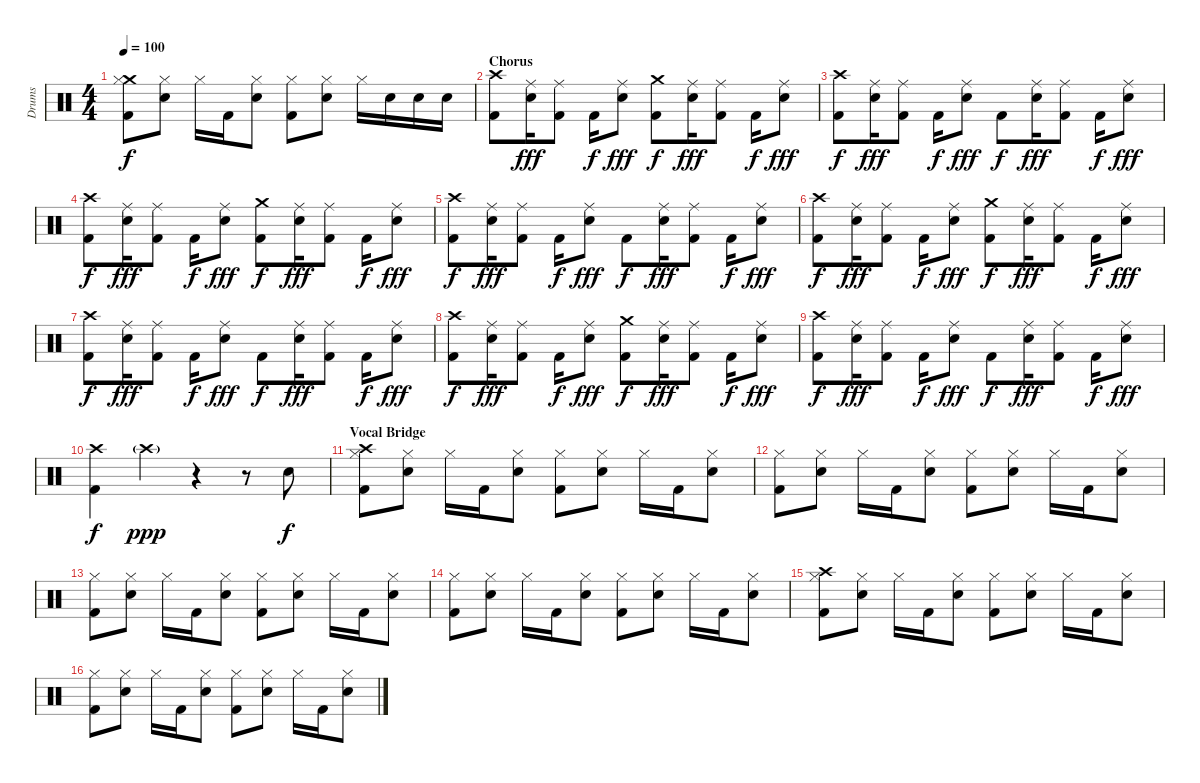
\track ("Drums" "Drums") {instrument percussion}
\staff {score}
\articulation defaults
\ts (4 4)
\tempo 100
\clef neutral
\ks c
("Crash medium (hit)" "Hi-Hat (closed)" "Kick (hit) 2").8{dy f} ("Hi-Hat (closed)" "Snare (hit) 2").8 "Hi-Hat (closed)".16 "Kick (hit) 2".16 ("Hi-Hat (closed)" "Snare (hit) 2").8 ("Hi-Hat (closed)" "Kick (hit) 2").8 ("Hi-Hat (closed)" "Snare (hit) 2").8 "Hi-Hat (closed)".16 "Snare (hit) 2".16 "Snare (hit) 2".16 "Snare (hit) 2".16 |
\section ("" "Chorus")
("Crash high (hit)" "Kick (hit) 2").8 ("Ride (middle)" "Snare (hit) 2").16{dy fff} ("Ride (middle)" "Kick (hit) 2").8 "Kick (hit) 2".16{dy f} ("Ride (middle)" "Snare (hit) 2").8{dy fff} ("Crash medium (hit)" "Kick (hit) 2").8{dy f} ("Ride (middle)" "Snare (hit) 2").16{dy fff} ("Ride (middle)" "Kick (hit) 2").8 "Kick (hit) 2".16{dy f} ("Ride (middle)" "Snare (hit) 2").8{dy fff} |
("Crash high (hit)" "Kick (hit) 2").8{dy f} ("Ride (middle)" "Snare (hit) 2").16{dy fff} ("Ride (middle)" "Kick (hit) 2").8 "Kick (hit) 2".16{dy f} ("Ride (middle)" "Snare (hit) 2").8{dy fff} "Kick (hit) 2".8{dy f} ("Ride (middle)" "Snare (hit) 2").16{dy fff} ("Ride (middle)" "Kick (hit) 2").8 "Kick (hit) 2".16{dy f} ("Ride (middle)" "Snare (hit) 2").8{dy fff} |
("Crash high (hit)" "Kick (hit) 2").8{dy f} ("Ride (middle)" "Snare (hit) 2").16{dy fff} ("Ride (middle)" "Kick (hit) 2").8 "Kick (hit) 2".16{dy f} ("Ride (middle)" "Snare (hit) 2").8{dy fff} ("Crash medium (hit)" "Kick (hit) 2").8{dy f} ("Ride (middle)" "Snare (hit) 2").16{dy fff} ("Ride (middle)" "Kick (hit) 2").8 "Kick (hit) 2".16{dy f} ("Ride (middle)" "Snare (hit) 2").8{dy fff} |
("Crash high (hit)" "Kick (hit) 2").8{dy f} ("Ride (middle)" "Snare (hit) 2").16{dy fff} ("Ride (middle)" "Kick (hit) 2").8 "Kick (hit) 2".16{dy f} ("Ride (middle)" "Snare (hit) 2").8{dy fff} "Kick (hit) 2".8{dy f} ("Ride (middle)" "Snare (hit) 2").16{dy fff} ("Ride (middle)" "Kick (hit) 2").8 "Kick (hit) 2".16{dy f} ("Ride (middle)" "Snare (hit) 2").8{dy fff} |
("Crash high (hit)" "Kick (hit) 2").8{dy f} ("Ride (middle)" "Snare (hit) 2").16{dy fff} ("Ride (middle)" "Kick (hit) 2").8 "Kick (hit) 2".16{dy f} ("Ride (middle)" "Snare (hit) 2").8{dy fff} ("Crash medium (hit)" "Kick (hit) 2").8{dy f} ("Ride (middle)" "Snare (hit) 2").16{dy fff} ("Ride (middle)" "Kick (hit) 2").8 "Kick (hit) 2".16{dy f} ("Ride (middle)" "Snare (hit) 2").8{dy fff} |
("Crash high (hit)" "Kick (hit) 2").8{dy f} ("Ride (middle)" "Snare (hit) 2").16{dy fff} ("Ride (middle)" "Kick (hit) 2").8 "Kick (hit) 2".16{dy f} ("Ride (middle)" "Snare (hit) 2").8{dy fff} "Kick (hit) 2".8{dy f} ("Ride (middle)" "Snare (hit) 2").16{dy fff} ("Ride (middle)" "Kick (hit) 2").8 "Kick (hit) 2".16{dy f} ("Ride (middle)" "Snare (hit) 2").8{dy fff} |
("Crash high (hit)" "Kick (hit) 2").8{dy f} ("Ride (middle)" "Snare (hit) 2").16{dy fff} ("Ride (middle)" "Kick (hit) 2").8 "Kick (hit) 2".16{dy f} ("Ride (middle)" "Snare (hit) 2").8{dy fff} ("Crash medium (hit)" "Kick (hit) 2").8{dy f} ("Ride (middle)" "Snare (hit) 2").16{dy fff} ("Ride (middle)" "Kick (hit) 2").8 "Kick (hit) 2".16{dy f} ("Ride (middle)" "Snare (hit) 2").8{dy fff} |
("Crash high (hit)" "Kick (hit) 2").8{dy f} ("Ride (middle)" "Snare (hit) 2").16{dy fff} ("Ride (middle)" "Kick (hit) 2").8 "Kick (hit) 2".16{dy f} ("Ride (middle)" "Snare (hit) 2").8{dy fff} "Kick (hit) 2".8{dy f} ("Ride (middle)" "Snare (hit) 2").16{dy fff} ("Ride (middle)" "Kick (hit) 2").8 "Kick (hit) 2".16{dy f} ("Ride (middle)" "Snare (hit) 2").8{dy fff} |
("Crash high (hit)" "Kick (hit) 2").4{dy f} "Crash high (hit)"{g}.4{dy ppp} r.4 r.8 "Snare (hit) 2".8{dy f} |
\section ("" "Vocal Bridge")
("Crash high (hit)" "Hi-Hat (closed)" "Kick (hit) 2").8 ("Hi-Hat (closed)" "Snare (hit) 2").8 "Hi-Hat (closed)".16 "Kick (hit) 2".16 ("Hi-Hat (closed)" "Snare (hit) 2").8 ("Hi-Hat (closed)" "Kick (hit) 2").8 ("Hi-Hat (closed)" "Snare (hit) 2").8 "Hi-Hat (closed)".16 "Kick (hit) 2".16 ("Hi-Hat (closed)" "Snare (hit) 2").8 |
("Hi-Hat (closed)" "Kick (hit) 2").8 ("Hi-Hat (closed)" "Snare (hit) 2").8 "Hi-Hat (closed)".16 "Kick (hit) 2".16 ("Hi-Hat (closed)" "Snare (hit) 2").8 ("Hi-Hat (closed)" "Kick (hit) 2").8 ("Hi-Hat (closed)" "Snare (hit) 2").8 "Hi-Hat (closed)".16 "Kick (hit) 2".16 ("Hi-Hat (closed)" "Snare (hit) 2").8 |
("Hi-Hat (closed)" "Kick (hit) 2").8 ("Hi-Hat (closed)" "Snare (hit) 2").8 "Hi-Hat (closed)".16 "Kick (hit) 2".16 ("Hi-Hat (closed)" "Snare (hit) 2").8 ("Hi-Hat (closed)" "Kick (hit) 2").8 ("Hi-Hat (closed)" "Snare (hit) 2").8 "Hi-Hat (closed)".16 "Kick (hit) 2".16 ("Hi-Hat (closed)" "Snare (hit) 2").8 |
("Hi-Hat (closed)" "Kick (hit) 2").8 ("Hi-Hat (closed)" "Snare (hit) 2").8 "Hi-Hat (closed)".16 "Kick (hit) 2".16 ("Hi-Hat (closed)" "Snare (hit) 2").8 ("Hi-Hat (closed)" "Kick (hit) 2").8 ("Hi-Hat (closed)" "Snare (hit) 2").8 "Hi-Hat (closed)".16 "Kick (hit) 2".16 ("Hi-Hat (closed)" "Snare (hit) 2").8 |
("Crash high (hit)" "Hi-Hat (closed)" "Kick (hit) 2").8 ("Hi-Hat (closed)" "Snare (hit) 2").8 "Hi-Hat (closed)".16 "Kick (hit) 2".16 ("Hi-Hat (closed)" "Snare (hit) 2").8 ("Hi-Hat (closed)" "Kick (hit) 2").8 ("Hi-Hat (closed)" "Snare (hit) 2").8 "Hi-Hat (closed)".16 "Kick (hit) 2".16 ("Hi-Hat (closed)" "Snare (hit) 2").8 |
("Hi-Hat (closed)" "Kick (hit) 2").8 ("Hi-Hat (closed)" "Snare (hit) 2").8 "Hi-Hat (closed)".16 "Kick (hit) 2".16 ("Hi-Hat (closed)" "Snare (hit) 2").8 ("Hi-Hat (closed)" "Kick (hit) 2").8 ("Hi-Hat (closed)" "Snare (hit) 2").8 "Hi-Hat (closed)".16 "Kick (hit) 2".16 ("Hi-Hat (closed)" "Snare (hit) 2").8
